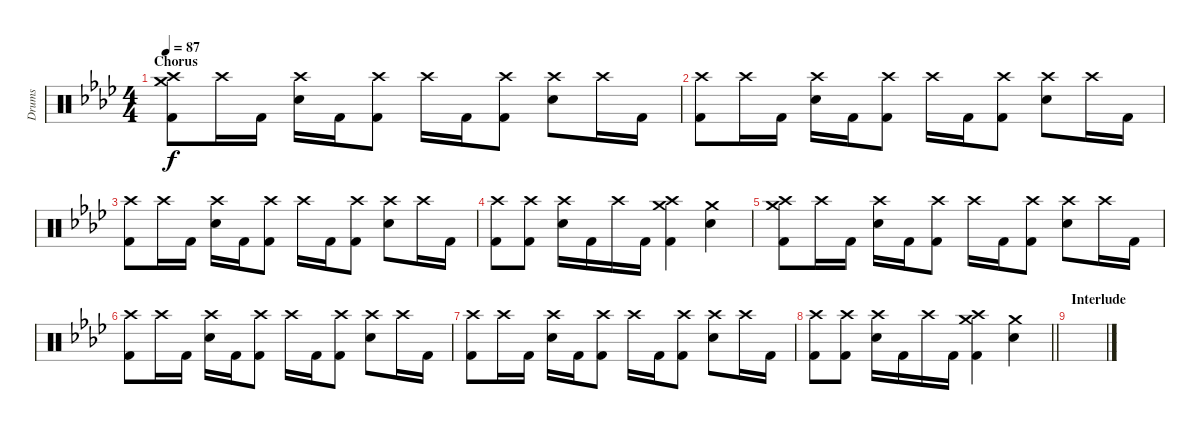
\track ("Drums" "Drums") {instrument percussion}
\staff {score}
\articulation defaults
\ts (4 4)
\section ("" "Chorus")
\tempo 87
\clef neutral
\ks fminor
("Crash medium (hit)" "Crash high (hit)" "Kick (hit) 2").8{dy f} "Crash high (hit)".16 "Kick (hit) 2".16 ("Crash high (hit)" "Electric Snare (hit)").16 "Kick (hit) 2".16 ("Crash high (hit)" "Kick (hit) 2").8 "Crash high (hit)".16 "Kick (hit) 2".16 ("Crash high (hit)" "Kick (hit) 2").8 ("Crash high (hit)" "Electric Snare (hit)").8 "Crash high (hit)".16 "Kick (hit) 2".16 |
("Crash high (hit)" "Kick (hit) 2").8 "Crash high (hit)".16 "Kick (hit) 2".16 ("Crash high (hit)" "Electric Snare (hit)").16 "Kick (hit) 2".16 ("Crash high (hit)" "Kick (hit) 2").8 "Crash high (hit)".16 "Kick (hit) 2".16 ("Crash high (hit)" "Kick (hit) 2").8 ("Crash high (hit)" "Electric Snare (hit)").8 "Crash high (hit)".16 "Kick (hit) 2".16 |
("Crash high (hit)" "Kick (hit) 2").8 "Crash high (hit)".16 "Kick (hit) 2".16 ("Crash high (hit)" "Electric Snare (hit)").16 "Kick (hit) 2".16 ("Crash high (hit)" "Kick (hit) 2").8 "Crash high (hit)".16 "Kick (hit) 2".16 ("Crash high (hit)" "Kick (hit) 2").8 ("Crash high (hit)" "Electric Snare (hit)").8 "Crash high (hit)".16 "Kick (hit) 2".16 |
("Crash high (hit)" "Kick (hit) 2").8 ("Crash high (hit)" "Kick (hit) 2").8 ("Crash high (hit)" "Electric Snare (hit)").16 "Kick (hit) 2".16 "Crash high (hit)".16 "Kick (hit) 2".16 ("Crash medium (hit)" "Crash high (hit)" "Kick (hit) 2").4 ("Crash medium (hit)" "Electric Snare (hit)").4 |
("Crash medium (hit)" "Crash high (hit)" "Kick (hit) 2").8 "Crash high (hit)".16 "Kick (hit) 2".16 ("Crash high (hit)" "Electric Snare (hit)").16 "Kick (hit) 2".16 ("Crash high (hit)" "Kick (hit) 2").8 "Crash high (hit)".16 "Kick (hit) 2".16 ("Crash high (hit)" "Kick (hit) 2").8 ("Crash high (hit)" "Electric Snare (hit)").8 "Crash high (hit)".16 "Kick (hit) 2".16 |
("Crash high (hit)" "Kick (hit) 2").8 "Crash high (hit)".16 "Kick (hit) 2".16 ("Crash high (hit)" "Electric Snare (hit)").16 "Kick (hit) 2".16 ("Crash high (hit)" "Kick (hit) 2").8 "Crash high (hit)".16 "Kick (hit) 2".16 ("Crash high (hit)" "Kick (hit) 2").8 ("Crash high (hit)" "Electric Snare (hit)").8 "Crash high (hit)".16 "Kick (hit) 2".16 |
("Crash high (hit)" "Kick (hit) 2").8 "Crash high (hit)".16 "Kick (hit) 2".16 ("Crash high (hit)" "Electric Snare (hit)").16 "Kick (hit) 2".16 ("Crash high (hit)" "Kick (hit) 2").8 "Crash high (hit)".16 "Kick (hit) 2".16 ("Crash high (hit)" "Kick (hit) 2").8 ("Crash high (hit)" "Electric Snare (hit)").8 "Crash high (hit)".16 "Kick (hit) 2".16 |
\barLineRight lightlight
("Crash high (hit)" "Kick (hit) 2").8 ("Crash high (hit)" "Kick (hit) 2").8 ("Crash high (hit)" "Electric Snare (hit)").16 "Kick (hit) 2".16 "Crash high (hit)".16 "Kick (hit) 2".16 ("Crash medium (hit)" "Crash high (hit)" "Kick (hit) 2").4 ("Crash medium (hit)" "Electric Snare (hit)").4 |
\section ("" "Interlude")
